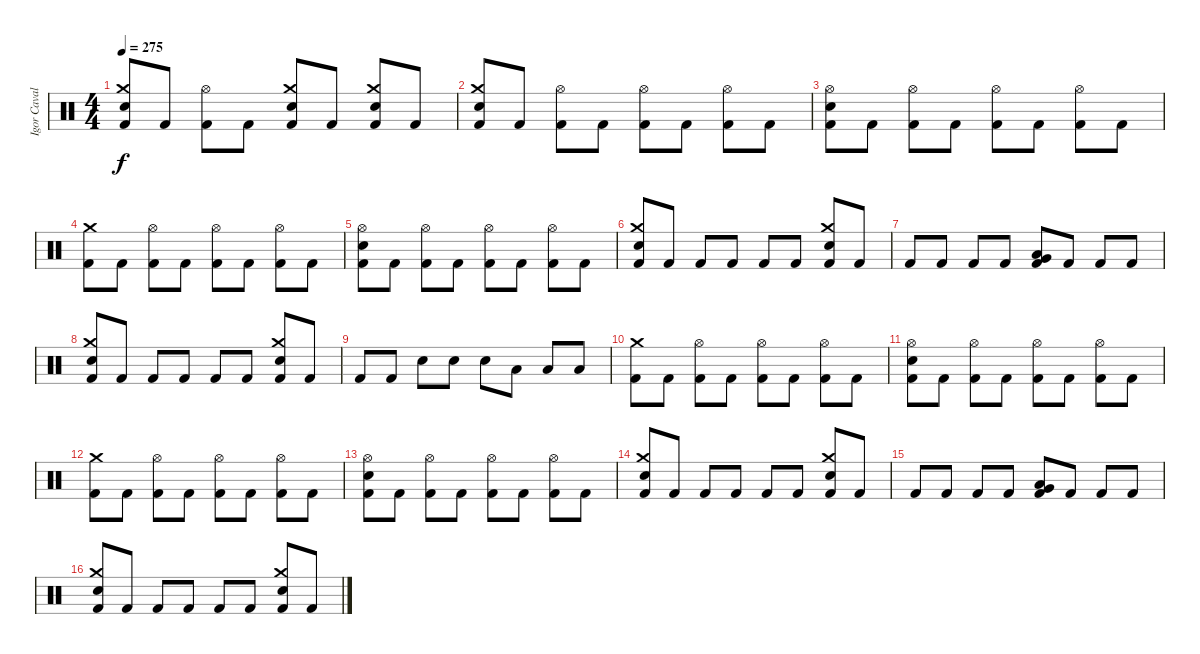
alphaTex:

\track ("Igor Cavalera" "Igor Caval") {instrument percussion}
\staff {score}
\articulation defaults
\ts (4 4)
\tempo 275
\clef neutral
\ks c
("Electric Snare (hit)" "Crash medium (hit)" "Kick (hit) 2").8{dy f} "Kick (hit) 2".8 ("Hi-Hat (open)" "Kick (hit) 2").8 "Kick (hit) 2".8 ("Electric Snare (hit)" "Crash medium (hit)" "Kick (hit) 2").8 "Kick (hit) 2".8 ("Electric Snare (hit)" "Crash medium (hit)" "Kick (hit) 2").8 "Kick (hit) 2".8 |
("Electric Snare (hit)" "Crash medium (hit)" "Kick (hit) 2").8 "Kick (hit) 2".8 ("Hi-Hat (open)" "Kick (hit) 2").8 "Kick (hit) 2".8 ("Hi-Hat (open)" "Kick (hit) 2").8 "Kick (hit) 2".8 ("Hi-Hat (open)" "Kick (hit) 2").8 "Kick (hit) 2".8 |
("Hi-Hat (open)" "Electric Snare (hit)" "Kick (hit) 2").8 "Kick (hit) 2".8 ("Hi-Hat (open)" "Kick (hit) 2").8 "Kick (hit) 2".8 ("Hi-Hat (open)" "Kick (hit) 2").8 "Kick (hit) 2".8 ("Hi-Hat (open)" "Kick (hit) 2").8 "Kick (hit) 2".8 |
("Crash medium (hit)" "Kick (hit) 2").8 "Kick (hit) 2".8 ("Hi-Hat (open)" "Kick (hit) 2").8 "Kick (hit) 2".8 ("Hi-Hat (open)" "Kick (hit) 2").8 "Kick (hit) 2".8 ("Hi-Hat (open)" "Kick (hit) 2").8 "Kick (hit) 2".8 |
("Hi-Hat (open)" "Electric Snare (hit)" "Kick (hit) 2").8 "Kick (hit) 2".8 ("Hi-Hat (open)" "Kick (hit) 2").8 "Kick (hit) 2".8 ("Hi-Hat (open)" "Kick (hit) 2").8 "Kick (hit) 2".8 ("Hi-Hat (open)" "Kick (hit) 2").8 "Kick (hit) 2".8 |
("Crash medium (hit)" "Kick (hit) 2" "Electric Snare (hit)").8 "Kick (hit) 2".8 "Kick (hit) 2".8 "Kick (hit) 2".8 "Kick (hit) 2".8 "Kick (hit) 2".8 ("Electric Snare (hit)" "Kick (hit) 2" "Crash medium (hit)").8 "Kick (hit) 2".8 |
"Kick (hit) 2".8 "Kick (hit) 2".8 "Kick (hit) 2".8 "Kick (hit) 2".8 ("Very Low Tom (hit)" "Low Tom (hit)" "Kick (hit) 2").8 "Kick (hit) 2".8 "Kick (hit) 2".8 "Kick (hit) 2".8 |
("Crash medium (hit)" "Electric Snare (hit)" "Kick (hit) 2").8 "Kick (hit) 2".8 "Kick (hit) 2".8 "Kick (hit) 2".8 "Kick (hit) 2".8 "Kick (hit) 2".8 ("Crash medium (hit)" "Electric Snare (hit)" "Kick (hit) 2").8 "Kick (hit) 2".8 |
"Kick (hit) 2".8 "Kick (hit) 2".8 "Electric Snare (hit)".8 "Electric Snare (hit)".8 "Electric Snare (hit)".8 "Low Tom (hit)".8 "Low Tom (hit)".8 "Low Tom (hit)".8 |
("Crash medium (hit)" "Kick (hit) 2").8 "Kick (hit) 2".8 ("Hi-Hat (open)" "Kick (hit) 2").8 "Kick (hit) 2".8 ("Hi-Hat (open)" "Kick (hit) 2").8 "Kick (hit) 2".8 ("Hi-Hat (open)" "Kick (hit) 2").8 "Kick (hit) 2".8 |
("Hi-Hat (open)" "Electric Snare (hit)" "Kick (hit) 2").8 "Kick (hit) 2".8 ("Hi-Hat (open)" "Kick (hit) 2").8 "Kick (hit) 2".8 ("Hi-Hat (open)" "Kick (hit) 2").8 "Kick (hit) 2".8 ("Hi-Hat (open)" "Kick (hit) 2").8 "Kick (hit) 2".8 |
("Crash medium (hit)" "Kick (hit) 2").8 "Kick (hit) 2".8 ("Hi-Hat (open)" "Kick (hit) 2").8 "Kick (hit) 2".8 ("Hi-Hat (open)" "Kick (hit) 2").8 "Kick (hit) 2".8 ("Hi-Hat (open)" "Kick (hit) 2").8 "Kick (hit) 2".8 |
("Hi-Hat (open)" "Electric Snare (hit)" "Kick (hit) 2").8 "Kick (hit) 2".8 ("Hi-Hat (open)" "Kick (hit) 2").8 "Kick (hit) 2".8 ("Hi-Hat (open)" "Kick (hit) 2").8 "Kick (hit) 2".8 ("Hi-Hat (open)" "Kick (hit) 2").8 "Kick (hit) 2".8 |
("Crash medium (hit)" "Kick (hit) 2" "Electric Snare (hit)").8 "Kick (hit) 2".8 "Kick (hit) 2".8 "Kick (hit) 2".8 "Kick (hit) 2".8 "Kick (hit) 2".8 ("Electric Snare (hit)" "Kick (hit) 2" "Crash medium (hit)").8 "Kick (hit) 2".8 |
"Kick (hit) 2".8 "Kick (hit) 2".8 "Kick (hit) 2".8 "Kick (hit) 2".8 ("Very Low Tom (hit)" "Low Tom (hit)" "Kick (hit) 2").8 "Kick (hit) 2".8 "Kick (hit) 2".8 "Kick (hit) 2".8 |
("Crash medium (hit)" "Electric Snare (hit)" "Kick (hit) 2").8 "Kick (hit) 2".8 "Kick (hit) 2".8 "Kick (hit) 2".8 "Kick (hit) 2".8 "Kick (hit) 2".8 ("Crash medium (hit)" "Electric Snare (hit)" "Kick (hit) 2").8 "Kick (hit) 2".8
